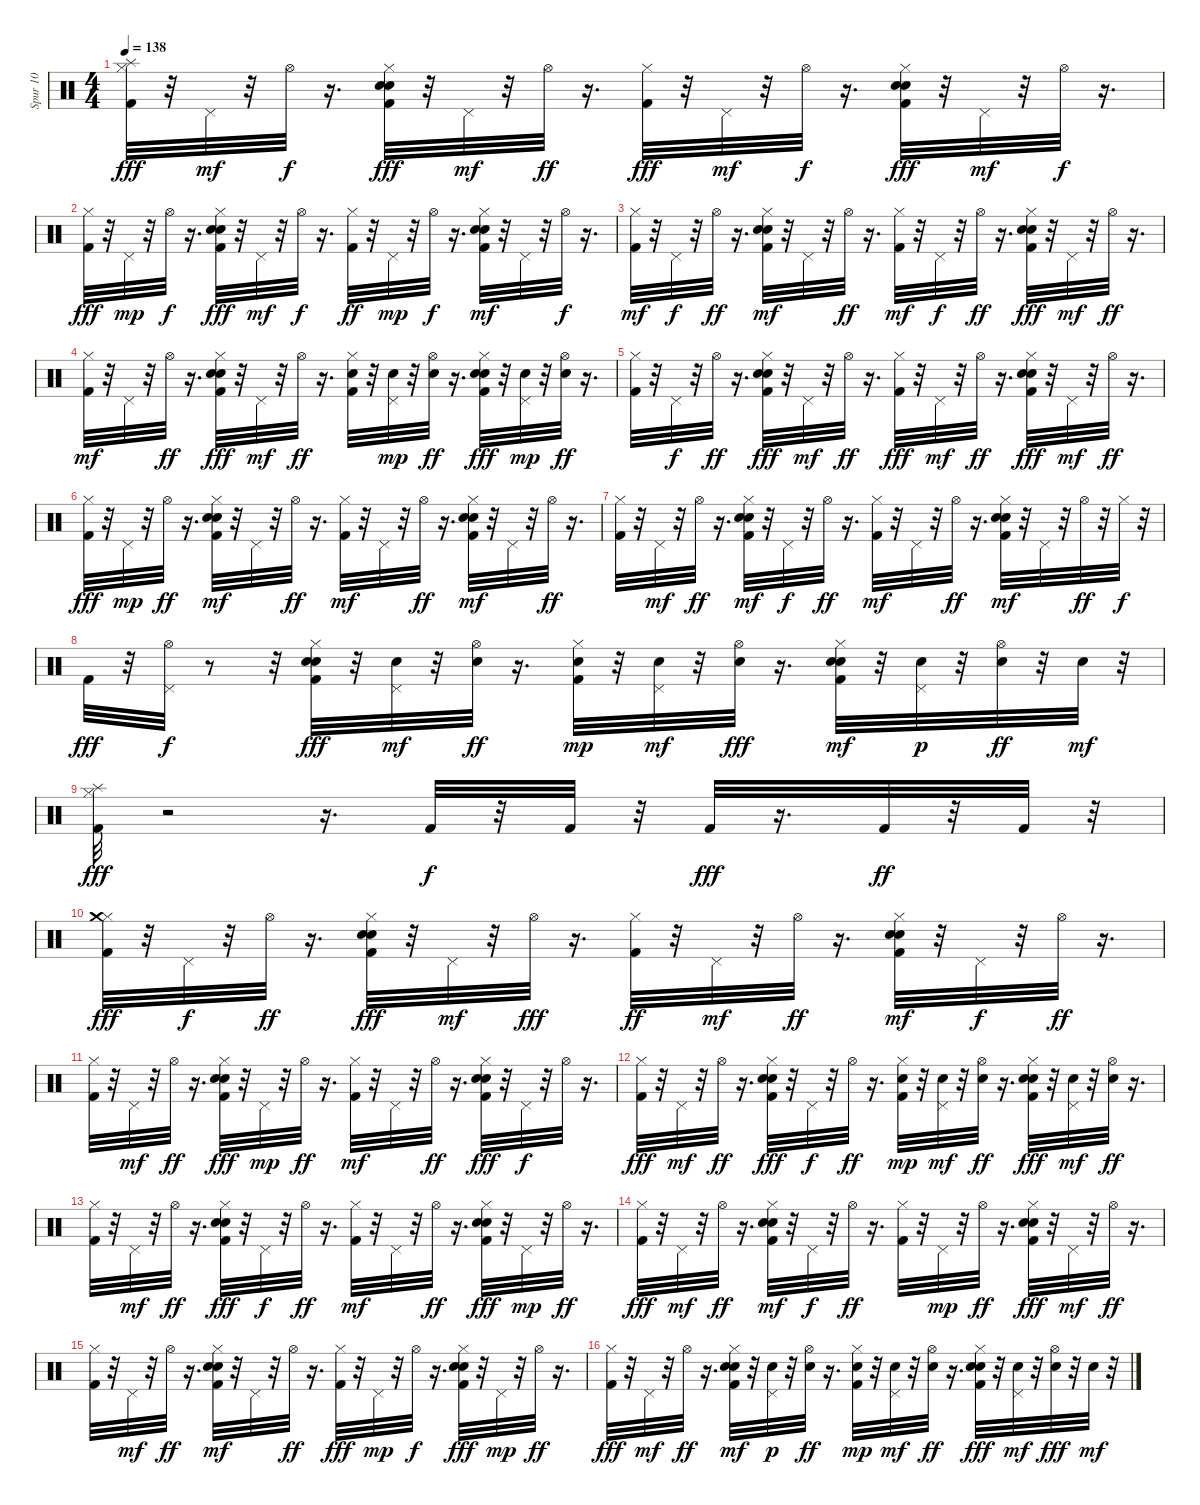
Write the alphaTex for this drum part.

\track ("Spur 10" "Spur 10") {instrument percussion}
\staff {score}
\articulation defaults
\ts (4 4)
\tempo 138
\clef neutral
\ks c
("Kick (hit) 2" "Hi-Hat (closed)" "Splash (hit)").32{dy fff} r.32 "Pedal Hi-Hat (hit)".32{dy mf} r.32 "Hi-Hat (open)".32{dy f} r.16{d} ("Kick (hit) 2" "Snare (hit) 2" "Hand Clap (hit)" "Hi-Hat (closed)").32{dy fff} r.32 "Pedal Hi-Hat (hit)".32{dy mf} r.32 "Hi-Hat (open)".32{dy ff} r.16{d} ("Kick (hit) 2" "Hi-Hat (closed)").32{dy fff} r.32 "Pedal Hi-Hat (hit)".32{dy mf} r.32 "Hi-Hat (open)".32{dy f} r.16{d} ("Kick (hit) 2" "Snare (hit) 2" "Hand Clap (hit)" "Hi-Hat (closed)").32{dy fff} r.32 "Pedal Hi-Hat (hit)".32{dy mf} r.32 "Hi-Hat (open)".32{dy f} r.16{d} |
("Kick (hit) 2" "Hi-Hat (closed)").32{dy fff} r.32 "Pedal Hi-Hat (hit)".32{dy mp} r.32 "Hi-Hat (open)".32{dy f} r.16{d} ("Kick (hit) 2" "Snare (hit) 2" "Hand Clap (hit)" "Hi-Hat (closed)").32{dy fff} r.32 "Pedal Hi-Hat (hit)".32{dy mf} r.32 "Hi-Hat (open)".32{dy f} r.16{d} ("Kick (hit) 2" "Hi-Hat (closed)").32{dy ff} r.32 "Pedal Hi-Hat (hit)".32{dy mp} r.32 "Hi-Hat (open)".32{dy f} r.16{d} ("Kick (hit) 2" "Snare (hit) 2" "Hand Clap (hit)" "Hi-Hat (closed)").32{dy mf} r.32 "Pedal Hi-Hat (hit)".32 r.32 "Hi-Hat (open)".32{dy f} r.16{d} |
("Kick (hit) 2" "Hi-Hat (closed)").32{dy mf} r.32 "Pedal Hi-Hat (hit)".32{dy f} r.32 "Hi-Hat (open)".32{dy ff} r.16{d} ("Kick (hit) 2" "Snare (hit) 2" "Hand Clap (hit)" "Hi-Hat (closed)").32{dy mf} r.32 "Pedal Hi-Hat (hit)".32 r.32 "Hi-Hat (open)".32{dy ff} r.16{d} ("Kick (hit) 2" "Hi-Hat (closed)").32{dy mf} r.32 "Pedal Hi-Hat (hit)".32{dy f} r.32 "Hi-Hat (open)".32{dy ff} r.16{d} ("Kick (hit) 2" "Snare (hit) 2" "Hand Clap (hit)" "Hi-Hat (closed)").32{dy fff} r.32 "Pedal Hi-Hat (hit)".32{dy mf} r.32 "Hi-Hat (open)".32{dy ff} r.16{d} |
("Kick (hit) 2" "Hi-Hat (closed)").32{dy mf} r.32 "Pedal Hi-Hat (hit)".32 r.32 "Hi-Hat (open)".32{dy ff} r.16{d} ("Kick (hit) 2" "Snare (hit) 2" "Hand Clap (hit)" "Hi-Hat (closed)").32{dy fff} r.32 "Pedal Hi-Hat (hit)".32{dy mf} r.32 "Hi-Hat (open)".32{dy ff} r.16{d} ("Kick (hit) 2" "Snare (hit) 2" "Hi-Hat (closed)").32 r.32 ("Snare (hit) 2" "Pedal Hi-Hat (hit)").32{dy mp} r.32 ("Snare (hit) 2" "Hi-Hat (open)").32{dy ff} r.16{d} ("Kick (hit) 2" "Snare (hit) 2" "Hand Clap (hit)" "Hi-Hat (closed)").32{dy fff} r.32 ("Snare (hit) 2" "Pedal Hi-Hat (hit)").32{dy mp} r.32 ("Snare (hit) 2" "Hi-Hat (open)").32{dy ff} r.16{d} |
("Kick (hit) 2" "Hi-Hat (closed)").32 r.32 "Pedal Hi-Hat (hit)".32{dy f} r.32 "Hi-Hat (open)".32{dy ff} r.16{d} ("Kick (hit) 2" "Snare (hit) 2" "Hand Clap (hit)" "Hi-Hat (closed)").32{dy fff} r.32 "Pedal Hi-Hat (hit)".32{dy mf} r.32 "Hi-Hat (open)".32{dy ff} r.16{d} ("Kick (hit) 2" "Hi-Hat (closed)").32{dy fff} r.32 "Pedal Hi-Hat (hit)".32{dy mf} r.32 "Hi-Hat (open)".32{dy ff} r.16{d} ("Kick (hit) 2" "Snare (hit) 2" "Hand Clap (hit)" "Hi-Hat (closed)").32{dy fff} r.32 "Pedal Hi-Hat (hit)".32{dy mf} r.32 "Hi-Hat (open)".32{dy ff} r.16{d} |
("Kick (hit) 2" "Hi-Hat (closed)").32{dy fff} r.32 "Pedal Hi-Hat (hit)".32{dy mp} r.32 "Hi-Hat (open)".32{dy ff} r.16{d} ("Kick (hit) 2" "Snare (hit) 2" "Hand Clap (hit)" "Hi-Hat (closed)").32{dy mf} r.32 "Pedal Hi-Hat (hit)".32 r.32 "Hi-Hat (open)".32{dy ff} r.16{d} ("Kick (hit) 2" "Hi-Hat (closed)").32{dy mf} r.32 "Pedal Hi-Hat (hit)".32 r.32 "Hi-Hat (open)".32{dy ff} r.16{d} ("Kick (hit) 2" "Snare (hit) 2" "Hand Clap (hit)" "Hi-Hat (closed)").32{dy mf} r.32 "Pedal Hi-Hat (hit)".32 r.32 "Hi-Hat (open)".32{dy ff} r.16{d} |
("Kick (hit) 2" "Hi-Hat (closed)").32 r.32 "Pedal Hi-Hat (hit)".32{dy mf} r.32 "Hi-Hat (open)".32{dy ff} r.16{d} ("Kick (hit) 2" "Snare (hit) 2" "Hand Clap (hit)" "Hi-Hat (closed)").32{dy mf} r.32 "Pedal Hi-Hat (hit)".32{dy f} r.32 "Hi-Hat (open)".32{dy ff} r.16{d} ("Kick (hit) 2" "Hi-Hat (closed)").32{dy mf} r.32 "Pedal Hi-Hat (hit)".32 r.32 "Hi-Hat (open)".32{dy ff} r.16{d} ("Kick (hit) 2" "Snare (hit) 2" "Hand Clap (hit)" "Hi-Hat (closed)").32{dy mf} r.32 "Pedal Hi-Hat (hit)".32 r.32 "Hi-Hat (open)".32{dy ff} r.32 "Hi-Hat (closed)".32{dy f} r.32 |
"Kick (hit) 2".32{dy fff} r.32 ("Pedal Hi-Hat (hit)" "Hi-Hat (open)").32{dy f} r.8 r.32 ("Kick (hit) 2" "Snare (hit) 2" "Hand Clap (hit)" "Hi-Hat (closed)").32{dy fff} r.32 ("Snare (hit) 2" "Pedal Hi-Hat (hit)").32{dy mf} r.32 ("Snare (hit) 2" "Hi-Hat (open)").32{dy ff} r.16{d} ("Kick (hit) 2" "Snare (hit) 2" "Hi-Hat (closed)").32{dy mp} r.32 ("Snare (hit) 2" "Pedal Hi-Hat (hit)").32{dy mf} r.32 ("Snare (hit) 2" "Hi-Hat (open)").32{dy fff} r.16{d} ("Kick (hit) 2" "Snare (hit) 2" "Hand Clap (hit)" "Hi-Hat (closed)").32{dy mf} r.32 ("Snare (hit) 2" "Pedal Hi-Hat (hit)").32{dy p} r.32 ("Snare (hit) 2" "Hi-Hat (open)").32{dy ff} r.32 "Snare (hit) 2".32{dy mf} r.32 |
("Kick (hit) 2" "Hi-Hat (closed)" "Splash (hit)").32{dy fff} r.2 r.16{d} "Kick (hit) 2".32{dy f} r.32 "Kick (hit) 2".32 r.32 "Kick (hit) 2".32{dy fff} r.16{d} "Kick (hit) 2".32{dy ff} r.32 "Kick (hit) 2".32 r.32 |
("Kick (hit) 2" "Hi-Hat (closed)" "Crash medium (hit)").32{dy fff} r.32 "Pedal Hi-Hat (hit)".32{dy f} r.32 "Hi-Hat (open)".32{dy ff} r.16{d} ("Kick (hit) 2" "Snare (hit) 2" "Hand Clap (hit)" "Hi-Hat (closed)").32{dy fff} r.32 "Pedal Hi-Hat (hit)".32{dy mf} r.32 "Hi-Hat (open)".32{dy fff} r.16{d} ("Kick (hit) 2" "Hi-Hat (closed)").32{dy ff} r.32 "Pedal Hi-Hat (hit)".32{dy mf} r.32 "Hi-Hat (open)".32{dy ff} r.16{d} ("Kick (hit) 2" "Snare (hit) 2" "Hand Clap (hit)" "Hi-Hat (closed)").32{dy mf} r.32 "Pedal Hi-Hat (hit)".32{dy f} r.32 "Hi-Hat (open)".32{dy ff} r.16{d} |
("Kick (hit) 2" "Hi-Hat (closed)").32 r.32 "Pedal Hi-Hat (hit)".32{dy mf} r.32 "Hi-Hat (open)".32{dy ff} r.16{d} ("Kick (hit) 2" "Snare (hit) 2" "Hand Clap (hit)" "Hi-Hat (closed)").32{dy fff} r.32 "Pedal Hi-Hat (hit)".32{dy mp} r.32 "Hi-Hat (open)".32{dy ff} r.16{d} ("Kick (hit) 2" "Hi-Hat (closed)").32{dy mf} r.32 "Pedal Hi-Hat (hit)".32 r.32 "Hi-Hat (open)".32{dy ff} r.16{d} ("Kick (hit) 2" "Snare (hit) 2" "Hand Clap (hit)" "Hi-Hat (closed)").32{dy fff} r.32 "Pedal Hi-Hat (hit)".32{dy f} r.32 "Hi-Hat (open)".32 r.16{d} |
("Kick (hit) 2" "Hi-Hat (closed)").32{dy fff} r.32 "Pedal Hi-Hat (hit)".32{dy mf} r.32 "Hi-Hat (open)".32{dy ff} r.16{d} ("Kick (hit) 2" "Snare (hit) 2" "Hand Clap (hit)" "Hi-Hat (closed)").32{dy fff} r.32 "Pedal Hi-Hat (hit)".32{dy f} r.32 "Hi-Hat (open)".32{dy ff} r.16{d} ("Kick (hit) 2" "Snare (hit) 2" "Hi-Hat (closed)").32{dy mp} r.32 ("Snare (hit) 2" "Pedal Hi-Hat (hit)").32{dy mf} r.32 ("Snare (hit) 2" "Hi-Hat (open)").32{dy ff} r.16{d} ("Kick (hit) 2" "Snare (hit) 2" "Hand Clap (hit)" "Hi-Hat (closed)").32{dy fff} r.32 ("Snare (hit) 2" "Pedal Hi-Hat (hit)").32{dy mf} r.32 ("Snare (hit) 2" "Hi-Hat (open)").32{dy ff} r.16{d} |
("Kick (hit) 2" "Hi-Hat (closed)").32 r.32 "Pedal Hi-Hat (hit)".32{dy mf} r.32 "Hi-Hat (open)".32{dy ff} r.16{d} ("Kick (hit) 2" "Snare (hit) 2" "Hand Clap (hit)" "Hi-Hat (closed)").32{dy fff} r.32 "Pedal Hi-Hat (hit)".32{dy f} r.32 "Hi-Hat (open)".32{dy ff} r.16{d} ("Kick (hit) 2" "Hi-Hat (closed)").32{dy mf} r.32 "Pedal Hi-Hat (hit)".32 r.32 "Hi-Hat (open)".32{dy ff} r.16{d} ("Kick (hit) 2" "Snare (hit) 2" "Hand Clap (hit)" "Hi-Hat (closed)").32{dy fff} r.32 "Pedal Hi-Hat (hit)".32{dy mp} r.32 "Hi-Hat (open)".32{dy ff} r.16{d} |
("Kick (hit) 2" "Hi-Hat (closed)").32{dy fff} r.32 "Pedal Hi-Hat (hit)".32{dy mf} r.32 "Hi-Hat (open)".32{dy ff} r.16{d} ("Kick (hit) 2" "Snare (hit) 2" "Hand Clap (hit)" "Hi-Hat (closed)").32{dy mf} r.32 "Pedal Hi-Hat (hit)".32{dy f} r.32 "Hi-Hat (open)".32{dy ff} r.16{d} ("Kick (hit) 2" "Hi-Hat (closed)").32 r.32 "Pedal Hi-Hat (hit)".32{dy mp} r.32 "Hi-Hat (open)".32{dy ff} r.16{d} ("Kick (hit) 2" "Snare (hit) 2" "Hand Clap (hit)" "Hi-Hat (closed)").32{dy fff} r.32 "Pedal Hi-Hat (hit)".32{dy mf} r.32 "Hi-Hat (open)".32{dy ff} r.16{d} |
("Kick (hit) 2" "Hi-Hat (closed)").32 r.32 "Pedal Hi-Hat (hit)".32{dy mf} r.32 "Hi-Hat (open)".32{dy ff} r.16{d} ("Kick (hit) 2" "Snare (hit) 2" "Hand Clap (hit)" "Hi-Hat (closed)").32{dy mf} r.32 "Pedal Hi-Hat (hit)".32 r.32 "Hi-Hat (open)".32{dy ff} r.16{d} ("Kick (hit) 2" "Hi-Hat (closed)").32{dy fff} r.32 "Pedal Hi-Hat (hit)".32{dy mp} r.32 "Hi-Hat (open)".32{dy f} r.16{d} ("Kick (hit) 2" "Snare (hit) 2" "Hand Clap (hit)" "Hi-Hat (closed)").32{dy fff} r.32 "Pedal Hi-Hat (hit)".32{dy mp} r.32 "Hi-Hat (open)".32{dy ff} r.16{d} |
("Kick (hit) 2" "Hi-Hat (closed)").32{dy fff} r.32 "Pedal Hi-Hat (hit)".32{dy mf} r.32 "Hi-Hat (open)".32{dy ff} r.16{d} ("Kick (hit) 2" "Snare (hit) 2" "Hand Clap (hit)" "Hi-Hat (closed)").32{dy mf} r.32 ("Snare (hit) 2" "Pedal Hi-Hat (hit)").32{dy p} r.32 ("Snare (hit) 2" "Hi-Hat (open)").32{dy ff} r.16{d} ("Kick (hit) 2" "Snare (hit) 2" "Hi-Hat (closed)").32{dy mp} r.32 ("Snare (hit) 2" "Pedal Hi-Hat (hit)").32{dy mf} r.32 ("Snare (hit) 2" "Hi-Hat (open)").32{dy ff} r.16{d} ("Kick (hit) 2" "Snare (hit) 2" "Hand Clap (hit)" "Hi-Hat (closed)").32{dy fff} r.32 ("Snare (hit) 2" "Pedal Hi-Hat (hit)").32{dy mf} r.32 ("Snare (hit) 2" "Hi-Hat (open)").32{dy fff} r.32 "Snare (hit) 2".32{dy mf} r.32
